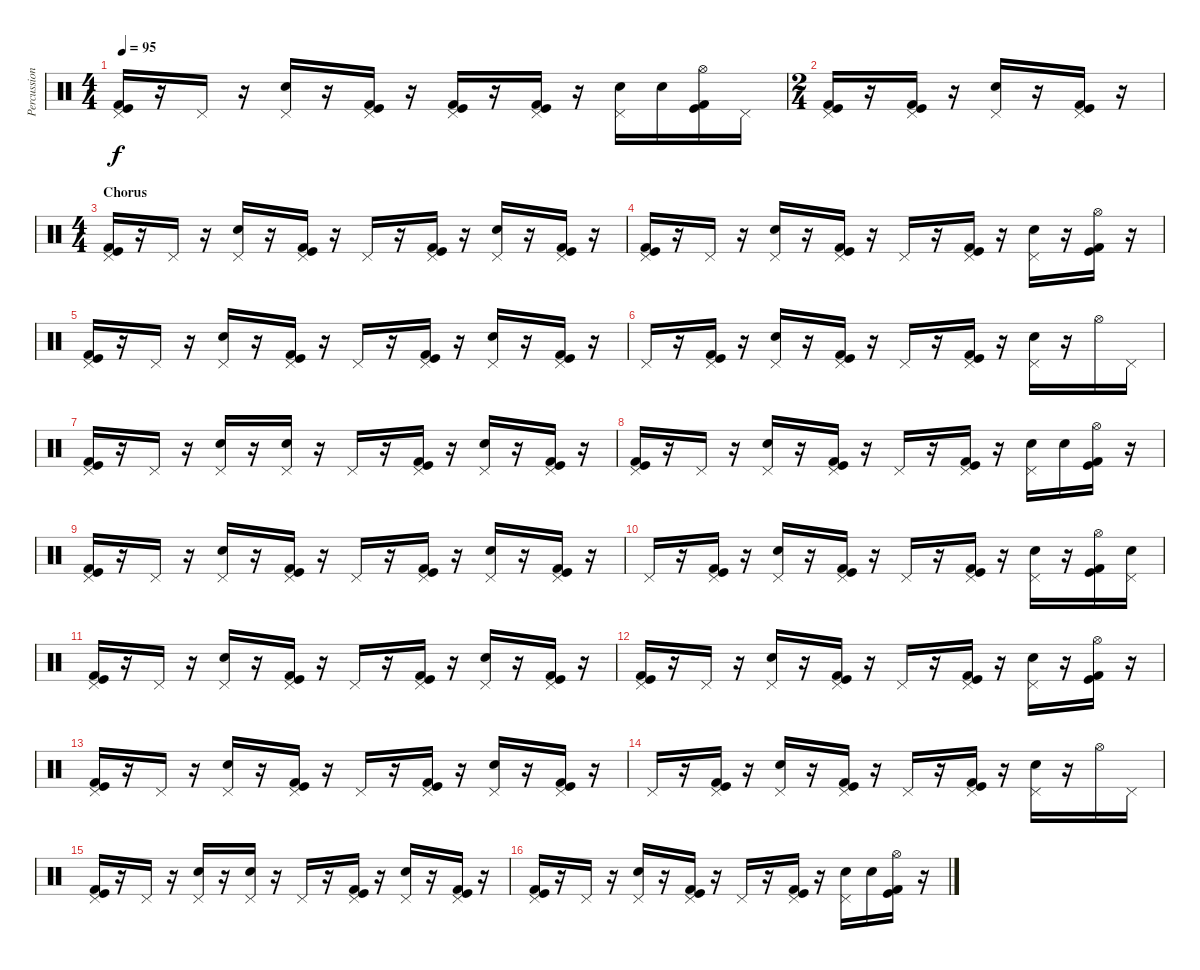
\track ("Percussion" "Percussion") {instrument percussion}
\staff {score}
\articulation defaults
\ts (4 4)
\tempo 95
\clef neutral
\ks c
("Pedal Hi-Hat (hit)" "Kick (hit) 2" "Kick (hit)").16{dy f} r.16 "Pedal Hi-Hat (hit)".16 r.16 ("Pedal Hi-Hat (hit)" "Snare (hit) 2").16 r.16 ("Pedal Hi-Hat (hit)" "Kick (hit) 2" "Kick (hit)").16 r.16 ("Pedal Hi-Hat (hit)" "Kick (hit) 2" "Kick (hit)").16 r.16 ("Pedal Hi-Hat (hit)" "Kick (hit) 2" "Kick (hit)").16 r.16 ("Pedal Hi-Hat (hit)" "Snare (hit) 2").16 "Snare (hit) 2".16 ("Hi-Hat (open)" "Kick (hit) 2" "Kick (hit)").16 "Pedal Hi-Hat (hit)".16 |
\ts (2 4)
("Pedal Hi-Hat (hit)" "Kick (hit) 2" "Kick (hit)").16 r.16 ("Pedal Hi-Hat (hit)" "Kick (hit) 2" "Kick (hit)").16 r.16 ("Pedal Hi-Hat (hit)" "Snare (hit) 2").16 r.16 ("Pedal Hi-Hat (hit)" "Kick (hit) 2" "Kick (hit)").16 r.16 |
\ts (4 4)
\section ("" "Chorus")
("Pedal Hi-Hat (hit)" "Kick (hit) 2" "Kick (hit)").16 r.16 "Pedal Hi-Hat (hit)".16 r.16 ("Pedal Hi-Hat (hit)" "Snare (hit) 2").16 r.16 ("Pedal Hi-Hat (hit)" "Kick (hit) 2" "Kick (hit)").16 r.16 "Pedal Hi-Hat (hit)".16 r.16 ("Pedal Hi-Hat (hit)" "Kick (hit) 2" "Kick (hit)").16 r.16 ("Pedal Hi-Hat (hit)" "Snare (hit) 2").16 r.16 ("Pedal Hi-Hat (hit)" "Kick (hit) 2" "Kick (hit)").16 r.16 |
("Pedal Hi-Hat (hit)" "Kick (hit) 2" "Kick (hit)").16 r.16 "Pedal Hi-Hat (hit)".16 r.16 ("Pedal Hi-Hat (hit)" "Snare (hit) 2").16 r.16 ("Pedal Hi-Hat (hit)" "Kick (hit) 2" "Kick (hit)").16 r.16 "Pedal Hi-Hat (hit)".16 r.16 ("Pedal Hi-Hat (hit)" "Kick (hit) 2" "Kick (hit)").16 r.16 ("Pedal Hi-Hat (hit)" "Snare (hit) 2").16 r.16 ("Hi-Hat (open)" "Kick (hit) 2" "Kick (hit)").16 r.16 |
("Pedal Hi-Hat (hit)" "Kick (hit) 2" "Kick (hit)").16 r.16 "Pedal Hi-Hat (hit)".16 r.16 ("Pedal Hi-Hat (hit)" "Snare (hit) 2").16 r.16 ("Pedal Hi-Hat (hit)" "Kick (hit) 2" "Kick (hit)").16 r.16 "Pedal Hi-Hat (hit)".16 r.16 ("Pedal Hi-Hat (hit)" "Kick (hit) 2" "Kick (hit)").16 r.16 ("Pedal Hi-Hat (hit)" "Snare (hit) 2").16 r.16 ("Pedal Hi-Hat (hit)" "Kick (hit) 2" "Kick (hit)").16 r.16 |
"Pedal Hi-Hat (hit)".16 r.16 ("Pedal Hi-Hat (hit)" "Kick (hit) 2" "Kick (hit)").16 r.16 ("Pedal Hi-Hat (hit)" "Snare (hit) 2").16 r.16 ("Pedal Hi-Hat (hit)" "Kick (hit) 2" "Kick (hit)").16 r.16 "Pedal Hi-Hat (hit)".16 r.16 ("Pedal Hi-Hat (hit)" "Kick (hit) 2" "Kick (hit)").16 r.16 ("Pedal Hi-Hat (hit)" "Snare (hit) 2").16 r.16 "Hi-Hat (open)".16 "Pedal Hi-Hat (hit)".16 |
("Pedal Hi-Hat (hit)" "Kick (hit) 2" "Kick (hit)").16 r.16 "Pedal Hi-Hat (hit)".16 r.16 ("Pedal Hi-Hat (hit)" "Snare (hit) 2").16 r.16 ("Pedal Hi-Hat (hit)" "Snare (hit) 2").16 r.16 "Pedal Hi-Hat (hit)".16 r.16 ("Pedal Hi-Hat (hit)" "Kick (hit) 2" "Kick (hit)").16 r.16 ("Pedal Hi-Hat (hit)" "Snare (hit) 2").16 r.16 ("Pedal Hi-Hat (hit)" "Kick (hit) 2" "Kick (hit)").16 r.16 |
("Pedal Hi-Hat (hit)" "Kick (hit) 2" "Kick (hit)").16 r.16 "Pedal Hi-Hat (hit)".16 r.16 ("Pedal Hi-Hat (hit)" "Snare (hit) 2").16 r.16 ("Pedal Hi-Hat (hit)" "Kick (hit) 2" "Kick (hit)").16 r.16 "Pedal Hi-Hat (hit)".16 r.16 ("Pedal Hi-Hat (hit)" "Kick (hit) 2" "Kick (hit)").16 r.16 ("Pedal Hi-Hat (hit)" "Snare (hit) 2").16 "Snare (hit) 2".16 ("Hi-Hat (open)" "Kick (hit) 2" "Kick (hit)").16 r.16 |
("Pedal Hi-Hat (hit)" "Kick (hit) 2" "Kick (hit)").16 r.16 "Pedal Hi-Hat (hit)".16 r.16 ("Pedal Hi-Hat (hit)" "Snare (hit) 2").16 r.16 ("Pedal Hi-Hat (hit)" "Kick (hit) 2" "Kick (hit)").16 r.16 "Pedal Hi-Hat (hit)".16 r.16 ("Pedal Hi-Hat (hit)" "Kick (hit) 2" "Kick (hit)").16 r.16 ("Pedal Hi-Hat (hit)" "Snare (hit) 2").16 r.16 ("Pedal Hi-Hat (hit)" "Kick (hit) 2" "Kick (hit)").16 r.16 |
"Pedal Hi-Hat (hit)".16 r.16 ("Pedal Hi-Hat (hit)" "Kick (hit) 2" "Kick (hit)").16 r.16 ("Pedal Hi-Hat (hit)" "Snare (hit) 2").16 r.16 ("Pedal Hi-Hat (hit)" "Kick (hit) 2" "Kick (hit)").16 r.16 "Pedal Hi-Hat (hit)".16 r.16 ("Pedal Hi-Hat (hit)" "Kick (hit) 2" "Kick (hit)").16 r.16 ("Pedal Hi-Hat (hit)" "Snare (hit) 2").16 r.16 ("Hi-Hat (open)" "Kick (hit) 2" "Kick (hit)").16 ("Pedal Hi-Hat (hit)" "Snare (hit) 2").16 |
("Pedal Hi-Hat (hit)" "Kick (hit) 2" "Kick (hit)").16 r.16 "Pedal Hi-Hat (hit)".16 r.16 ("Pedal Hi-Hat (hit)" "Snare (hit) 2").16 r.16 ("Pedal Hi-Hat (hit)" "Kick (hit) 2" "Kick (hit)").16 r.16 "Pedal Hi-Hat (hit)".16 r.16 ("Pedal Hi-Hat (hit)" "Kick (hit) 2" "Kick (hit)").16 r.16 ("Pedal Hi-Hat (hit)" "Snare (hit) 2").16 r.16 ("Pedal Hi-Hat (hit)" "Kick (hit) 2" "Kick (hit)").16 r.16 |
("Pedal Hi-Hat (hit)" "Kick (hit) 2" "Kick (hit)").16 r.16 "Pedal Hi-Hat (hit)".16 r.16 ("Pedal Hi-Hat (hit)" "Snare (hit) 2").16 r.16 ("Pedal Hi-Hat (hit)" "Kick (hit) 2" "Kick (hit)").16 r.16 "Pedal Hi-Hat (hit)".16 r.16 ("Pedal Hi-Hat (hit)" "Kick (hit) 2" "Kick (hit)").16 r.16 ("Pedal Hi-Hat (hit)" "Snare (hit) 2").16 r.16 ("Hi-Hat (open)" "Kick (hit) 2" "Kick (hit)").16 r.16 |
("Pedal Hi-Hat (hit)" "Kick (hit) 2" "Kick (hit)").16 r.16 "Pedal Hi-Hat (hit)".16 r.16 ("Pedal Hi-Hat (hit)" "Snare (hit) 2").16 r.16 ("Pedal Hi-Hat (hit)" "Kick (hit) 2" "Kick (hit)").16 r.16 "Pedal Hi-Hat (hit)".16 r.16 ("Pedal Hi-Hat (hit)" "Kick (hit) 2" "Kick (hit)").16 r.16 ("Pedal Hi-Hat (hit)" "Snare (hit) 2").16 r.16 ("Pedal Hi-Hat (hit)" "Kick (hit) 2" "Kick (hit)").16 r.16 |
"Pedal Hi-Hat (hit)".16 r.16 ("Pedal Hi-Hat (hit)" "Kick (hit) 2" "Kick (hit)").16 r.16 ("Pedal Hi-Hat (hit)" "Snare (hit) 2").16 r.16 ("Pedal Hi-Hat (hit)" "Kick (hit) 2" "Kick (hit)").16 r.16 "Pedal Hi-Hat (hit)".16 r.16 ("Pedal Hi-Hat (hit)" "Kick (hit) 2" "Kick (hit)").16 r.16 ("Pedal Hi-Hat (hit)" "Snare (hit) 2").16 r.16 "Hi-Hat (open)".16 "Pedal Hi-Hat (hit)".16 |
("Pedal Hi-Hat (hit)" "Kick (hit) 2" "Kick (hit)").16 r.16 "Pedal Hi-Hat (hit)".16 r.16 ("Pedal Hi-Hat (hit)" "Snare (hit) 2").16 r.16 ("Pedal Hi-Hat (hit)" "Snare (hit) 2").16 r.16 "Pedal Hi-Hat (hit)".16 r.16 ("Pedal Hi-Hat (hit)" "Kick (hit) 2" "Kick (hit)").16 r.16 ("Pedal Hi-Hat (hit)" "Snare (hit) 2").16 r.16 ("Pedal Hi-Hat (hit)" "Kick (hit) 2" "Kick (hit)").16 r.16 |
("Pedal Hi-Hat (hit)" "Kick (hit) 2" "Kick (hit)").16 r.16 "Pedal Hi-Hat (hit)".16 r.16 ("Pedal Hi-Hat (hit)" "Snare (hit) 2").16 r.16 ("Pedal Hi-Hat (hit)" "Kick (hit) 2" "Kick (hit)").16 r.16 "Pedal Hi-Hat (hit)".16 r.16 ("Pedal Hi-Hat (hit)" "Kick (hit) 2" "Kick (hit)").16 r.16 ("Pedal Hi-Hat (hit)" "Snare (hit) 2").16 "Snare (hit) 2".16 ("Hi-Hat (open)" "Kick (hit) 2" "Kick (hit)").16 r.16
